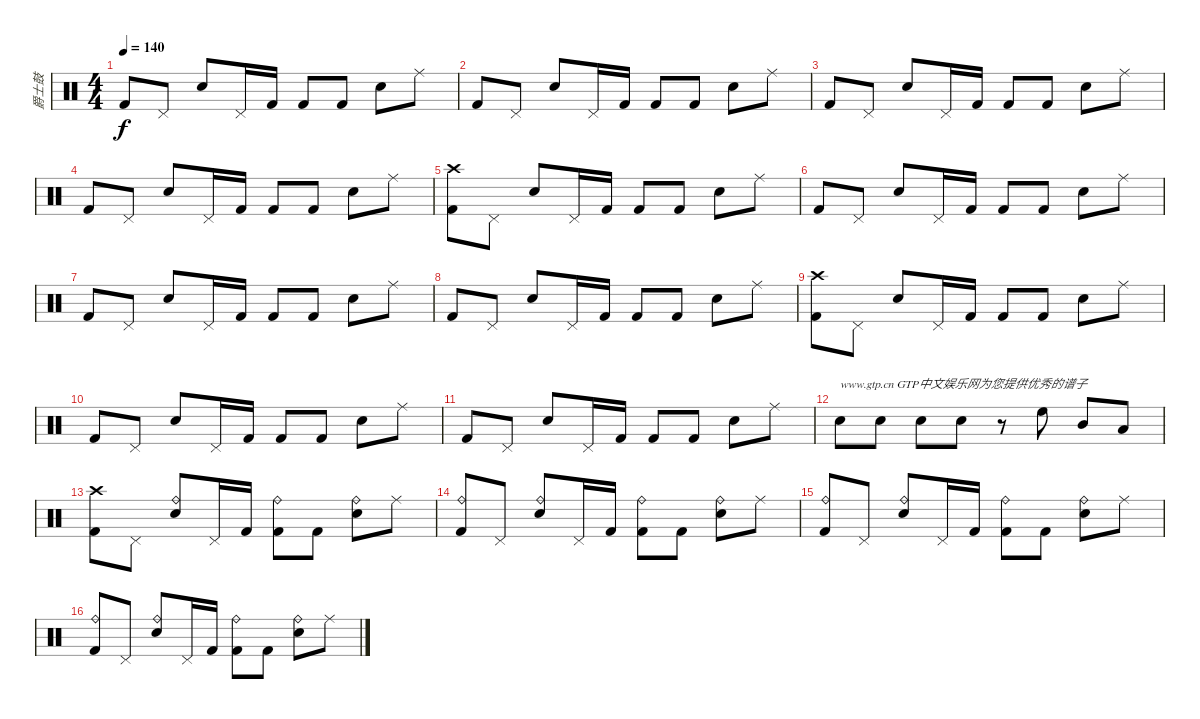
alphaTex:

\track ("爵士鼓" "爵士鼓") {instrument percussion}
\staff {score}
\articulation defaults
\ts (4 4)
\tempo 140
\clef neutral
\ks c "Kick (hit) 2".8{dy f} "Pedal Hi-Hat (hit)".8 "Snare (hit) 2".8 "Pedal Hi-Hat (hit)".16 "Kick (hit) 2".16 "Kick (hit) 2".8 "Kick (hit) 2".8 "Snare (hit) 2".8 "Ride (middle)".8
|
"Kick (hit) 2".8 "Pedal Hi-Hat (hit)".8 "Snare (hit) 2".8 "Pedal Hi-Hat (hit)".16 "Kick (hit) 2".16 "Kick (hit) 2".8 "Kick (hit) 2".8 "Snare (hit) 2".8 "Ride (middle)".8 |
"Kick (hit) 2".8 "Pedal Hi-Hat (hit)".8 "Snare (hit) 2".8 "Pedal Hi-Hat (hit)".16 "Kick (hit) 2".16 "Kick (hit) 2".8 "Kick (hit) 2".8 "Snare (hit) 2".8 "Ride (middle)".8 |
"Kick (hit) 2".8 "Pedal Hi-Hat (hit)".8 "Snare (hit) 2".8 "Pedal Hi-Hat (hit)".16 "Kick (hit) 2".16 "Kick (hit) 2".8 "Kick (hit) 2".8 "Snare (hit) 2".8 "Ride (middle)".8 |
("Crash high (hit)" "Kick (hit) 2").8 "Pedal Hi-Hat (hit)".8 "Snare (hit) 2".8 "Pedal Hi-Hat (hit)".16 "Kick (hit) 2".16 "Kick (hit) 2".8 "Kick (hit) 2".8 "Snare (hit) 2".8 "Ride (middle)".8 |
"Kick (hit) 2".8 "Pedal Hi-Hat (hit)".8 "Snare (hit) 2".8 "Pedal Hi-Hat (hit)".16 "Kick (hit) 2".16 "Kick (hit) 2".8 "Kick (hit) 2".8 "Snare (hit) 2".8 "Ride (middle)".8 |
"Kick (hit) 2".8 "Pedal Hi-Hat (hit)".8 "Snare (hit) 2".8 "Pedal Hi-Hat (hit)".16 "Kick (hit) 2".16 "Kick (hit) 2".8 "Kick (hit) 2".8 "Snare (hit) 2".8 "Ride (middle)".8 |
"Kick (hit) 2".8 "Pedal Hi-Hat (hit)".8 "Snare (hit) 2".8 "Pedal Hi-Hat (hit)".16 "Kick (hit) 2".16 "Kick (hit) 2".8 "Kick (hit) 2".8 "Snare (hit) 2".8 "Ride (middle)".8 |
("Crash high (hit)" "Kick (hit) 2").8 "Pedal Hi-Hat (hit)".8 "Snare (hit) 2".8 "Pedal Hi-Hat (hit)".16 "Kick (hit) 2".16 "Kick (hit) 2".8 "Kick (hit) 2".8 "Snare (hit) 2".8 "Ride (middle)".8 |
"Kick (hit) 2".8 "Pedal Hi-Hat (hit)".8 "Snare (hit) 2".8 "Pedal Hi-Hat (hit)".16 "Kick (hit) 2".16 "Kick (hit) 2".8 "Kick (hit) 2".8 "Snare (hit) 2".8 "Ride (middle)".8 |
"Kick (hit) 2".8 "Pedal Hi-Hat (hit)".8 "Snare (hit) 2".8 "Pedal Hi-Hat (hit)".16 "Kick (hit) 2".16 "Kick (hit) 2".8 "Kick (hit) 2".8 "Snare (hit) 2".8 "Ride (middle)".8 |
"Snare (hit) 2".8{txt "www.gtp.cn GTP中文娱乐网为您提供优秀的谱子"} "Snare (hit) 2".8 "Snare (hit) 2".8 "Snare (hit) 2".8 r.8 "High Floor Tom (hit)".8 "Mid Tom (hit)".8 "Low Tom (hit)".8 |
("Crash high (hit)" "Kick (hit) 2").8 "Pedal Hi-Hat (hit)".8 ("Ride (bell)" "Snare (hit) 2").8 "Pedal Hi-Hat (hit)".16 "Kick (hit) 2".16 ("Ride (bell)" "Kick (hit) 2").8 "Kick (hit) 2".8 ("Ride (bell)" "Snare (hit) 2").8 "Ride (middle)".8 |
("Ride (bell)" "Kick (hit) 2").8 "Pedal Hi-Hat (hit)".8 ("Ride (bell)" "Snare (hit) 2").8 "Pedal Hi-Hat (hit)".16 "Kick (hit) 2".16 ("Ride (bell)" "Kick (hit) 2").8 "Kick (hit) 2".8 ("Ride (bell)" "Snare (hit) 2").8 "Ride (middle)".8 |
("Ride (bell)" "Kick (hit) 2").8 "Pedal Hi-Hat (hit)".8 ("Ride (bell)" "Snare (hit) 2").8 "Pedal Hi-Hat (hit)".16 "Kick (hit) 2".16 ("Ride (bell)" "Kick (hit) 2").8 "Kick (hit) 2".8 ("Ride (bell)" "Snare (hit) 2").8 "Ride (middle)".8 |
("Ride (bell)" "Kick (hit) 2").8 "Pedal Hi-Hat (hit)".8 ("Ride (bell)" "Snare (hit) 2").8 "Pedal Hi-Hat (hit)".16 "Kick (hit) 2".16 ("Ride (bell)" "Kick (hit) 2").8 "Kick (hit) 2".8 ("Ride (bell)" "Snare (hit) 2").8 "Ride (middle)".8
